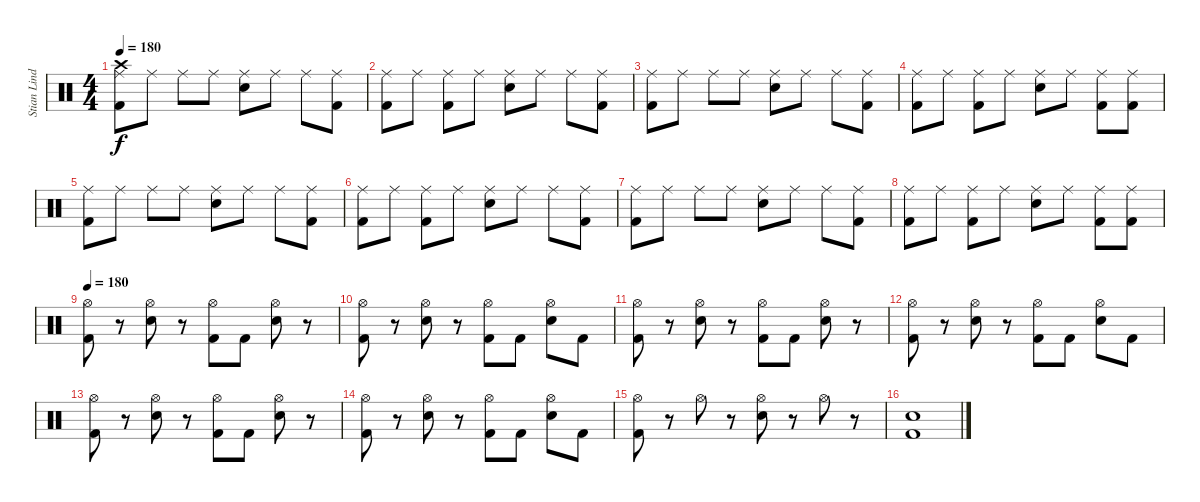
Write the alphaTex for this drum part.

\track ("Stian Lindaas" "Stian Lind") {instrument percussion}
\staff {score}
\articulation defaults
\ts (4 4)
\section ("" " ")
\tempo 180
\clef neutral
\ks c
("Crash high (hit)" "Ride (middle)" "Kick (hit) 2").8{dy f} "Ride (middle)".8 "Ride (middle)".8 "Ride (middle)".8 ("Ride (middle)" "Electric Snare (hit)").8 "Ride (middle)".8 "Ride (middle)".8 ("Ride (middle)" "Kick (hit) 2").8 |
("Ride (middle)" "Kick (hit) 2").8 "Ride (middle)".8 ("Ride (middle)" "Kick (hit) 2").8 "Ride (middle)".8 ("Ride (middle)" "Electric Snare (hit)").8 "Ride (middle)".8 "Ride (middle)".8 ("Ride (middle)" "Kick (hit) 2").8 |
("Ride (middle)" "Kick (hit) 2").8 "Ride (middle)".8 "Ride (middle)".8 "Ride (middle)".8 ("Ride (middle)" "Electric Snare (hit)").8 "Ride (middle)".8 "Ride (middle)".8 ("Ride (middle)" "Kick (hit) 2").8 |
("Ride (middle)" "Kick (hit) 2").8 "Ride (middle)".8 ("Ride (middle)" "Kick (hit) 2").8 "Ride (middle)".8 ("Ride (middle)" "Electric Snare (hit)").8 "Ride (middle)".8 ("Ride (middle)" "Kick (hit) 2").8 ("Ride (middle)" "Kick (hit) 2").8 |
("Ride (middle)" "Kick (hit) 2").8 "Ride (middle)".8 "Ride (middle)".8 "Ride (middle)".8 ("Ride (middle)" "Electric Snare (hit)").8 "Ride (middle)".8 "Ride (middle)".8 ("Ride (middle)" "Kick (hit) 2").8 |
("Ride (middle)" "Kick (hit) 2").8 "Ride (middle)".8 ("Ride (middle)" "Kick (hit) 2").8 "Ride (middle)".8 ("Ride (middle)" "Electric Snare (hit)").8 "Ride (middle)".8 "Ride (middle)".8 ("Ride (middle)" "Kick (hit) 2").8 |
("Ride (middle)" "Kick (hit) 2").8 "Ride (middle)".8 "Ride (middle)".8 "Ride (middle)".8 ("Ride (middle)" "Electric Snare (hit)").8 "Ride (middle)".8 "Ride (middle)".8 ("Ride (middle)" "Kick (hit) 2").8 |
("Ride (middle)" "Kick (hit) 2").8 "Ride (middle)".8 ("Ride (middle)" "Kick (hit) 2").8 "Ride (middle)".8 ("Ride (middle)" "Electric Snare (hit)").8 "Ride (middle)".8 ("Ride (middle)" "Kick (hit) 2").8 ("Ride (middle)" "Kick (hit) 2").8 |
\section ("" "")
\tempo 180
("Hi-Hat (open)" "Kick (hit) 2").8 r.8 ("Hi-Hat (open)" "Electric Snare (hit)").8 r.8 ("Hi-Hat (open)" "Kick (hit) 2").8 "Kick (hit) 2".8 ("Hi-Hat (open)" "Electric Snare (hit)").8 r.8 |
("Hi-Hat (open)" "Kick (hit) 2").8 r.8 ("Hi-Hat (open)" "Electric Snare (hit)").8 r.8 ("Hi-Hat (open)" "Kick (hit) 2").8 "Kick (hit) 2".8 ("Hi-Hat (open)" "Electric Snare (hit)").8 "Kick (hit) 2".8 |
("Hi-Hat (open)" "Kick (hit) 2").8 r.8 ("Hi-Hat (open)" "Electric Snare (hit)").8 r.8 ("Hi-Hat (open)" "Kick (hit) 2").8 "Kick (hit) 2".8 ("Hi-Hat (open)" "Electric Snare (hit)").8 r.8 |
("Hi-Hat (open)" "Kick (hit) 2").8 r.8 ("Hi-Hat (open)" "Electric Snare (hit)").8 r.8 ("Hi-Hat (open)" "Kick (hit) 2").8 "Kick (hit) 2".8 ("Hi-Hat (open)" "Electric Snare (hit)").8 "Kick (hit) 2".8 |
\section ("" "")
("Hi-Hat (open)" "Kick (hit) 2").8 r.8 ("Hi-Hat (open)" "Electric Snare (hit)").8 r.8 ("Hi-Hat (open)" "Kick (hit) 2").8 "Kick (hit) 2".8 ("Hi-Hat (open)" "Electric Snare (hit)").8 r.8 |
("Hi-Hat (open)" "Kick (hit) 2").8 r.8 ("Hi-Hat (open)" "Electric Snare (hit)").8 r.8 ("Hi-Hat (open)" "Kick (hit) 2").8 "Kick (hit) 2".8 ("Hi-Hat (open)" "Electric Snare (hit)").8 "Kick (hit) 2".8 |
("Hi-Hat (open)" "Kick (hit) 2").8 r.8 "Hi-Hat (open)".8 r.8 ("Hi-Hat (open)" "Electric Snare (hit)").8 r.8 "Hi-Hat (open)".8 r.8 |
("Electric Snare (hit)" "Kick (hit) 2").1
